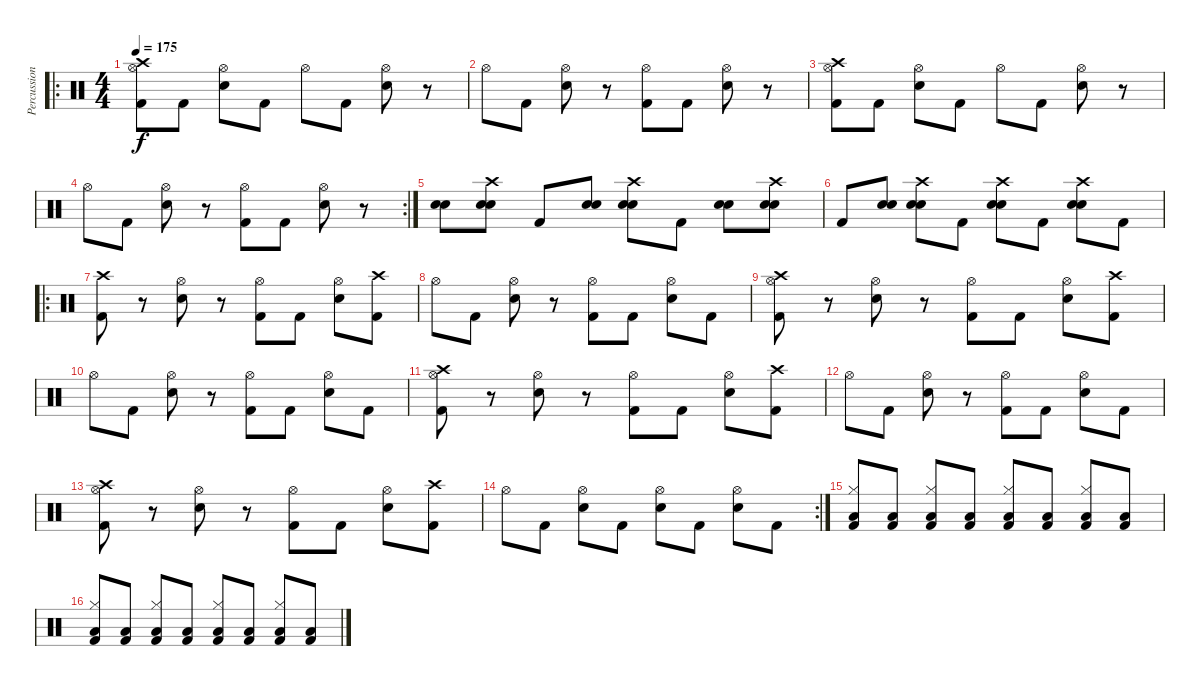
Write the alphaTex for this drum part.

\track ("Percussion" "Percussion") {instrument percussion}
\staff {score}
\articulation defaults
\ro
\ts (4 4)
\tempo 175
\clef neutral
\ks c
("Crash high (hit)" "Hi-Hat (open)" "Kick (hit) 2").8{dy f} "Kick (hit) 2".8 ("Hi-Hat (open)" "Snare (hit) 2").8 "Kick (hit) 2".8 "Hi-Hat (open)".8 "Kick (hit) 2".8 ("Hi-Hat (open)" "Snare (hit) 2").8 r.8 |
"Hi-Hat (open)".8 "Kick (hit) 2".8 ("Hi-Hat (open)" "Snare (hit) 2").8 r.8 ("Hi-Hat (open)" "Kick (hit) 2").8 "Kick (hit) 2".8 ("Hi-Hat (open)" "Snare (hit) 2").8 r.8 |
("Crash high (hit)" "Hi-Hat (open)" "Kick (hit) 2").8 "Kick (hit) 2".8 ("Hi-Hat (open)" "Snare (hit) 2").8 "Kick (hit) 2".8 "Hi-Hat (open)".8 "Kick (hit) 2".8 ("Hi-Hat (open)" "Snare (hit) 2").8 r.8 |
\rc 2 "Hi-Hat (open)".8 "Kick (hit) 2".8
("Hi-Hat (open)" "Snare (hit) 2").8 r.8 ("Hi-Hat (open)" "Kick (hit) 2").8 "Kick (hit) 2".8 ("Hi-Hat (open)" "Snare (hit) 2").8 r.8 |
("Hand Clap (hit)" "Snare (hit) 2").8 ("Hand Clap (hit)" "Crash high (hit)" "Snare (hit) 2").8 "Kick (hit) 2".8 ("Hand Clap (hit)" "Snare (hit) 2").8 ("Hand Clap (hit)" "Crash high (hit)" "Snare (hit) 2").8 "Kick (hit) 2".8 ("Hand Clap (hit)" "Snare (hit) 2").8 ("Hand Clap (hit)" "Crash high (hit)" "Snare (hit) 2").8 |
"Kick (hit) 2".8 ("Hand Clap (hit)" "Snare (hit) 2").8 ("Hand Clap (hit)" "Crash high (hit)" "Snare (hit) 2").8 "Kick (hit) 2".8 ("Hand Clap (hit)" "Crash high (hit)" "Snare (hit) 2").8 "Kick (hit) 2".8 ("Hand Clap (hit)" "Crash high (hit)" "Snare (hit) 2").8 "Kick (hit) 2".8 |
\ro
("Crash high (hit)" "Kick (hit) 2").8 r.8 ("Hi-Hat (open)" "Snare (hit) 2").8 r.8 ("Hi-Hat (open)" "Kick (hit) 2").8 "Kick (hit) 2".8 ("Hi-Hat (open)" "Snare (hit) 2").8 ("Crash high (hit)" "Kick (hit) 2").8 |
"Hi-Hat (open)".8 "Kick (hit) 2".8 ("Hi-Hat (open)" "Snare (hit) 2").8 r.8 ("Hi-Hat (open)" "Kick (hit) 2").8 "Kick (hit) 2".8 ("Hi-Hat (open)" "Snare (hit) 2").8 "Kick (hit) 2".8 |
("Crash high (hit)" "Hi-Hat (open)" "Kick (hit) 2").8 r.8 ("Hi-Hat (open)" "Snare (hit) 2").8 r.8 ("Hi-Hat (open)" "Kick (hit) 2").8 "Kick (hit) 2".8 ("Hi-Hat (open)" "Snare (hit) 2").8 ("Crash high (hit)" "Kick (hit) 2").8 |
"Hi-Hat (open)".8 "Kick (hit) 2".8 ("Hi-Hat (open)" "Snare (hit) 2").8 r.8 ("Hi-Hat (open)" "Kick (hit) 2").8 "Kick (hit) 2".8 ("Hi-Hat (open)" "Snare (hit) 2").8 "Kick (hit) 2".8 |
("Crash high (hit)" "Hi-Hat (open)" "Kick (hit) 2").8 r.8 ("Hi-Hat (open)" "Snare (hit) 2").8 r.8 ("Hi-Hat (open)" "Kick (hit) 2").8 "Kick (hit) 2".8 ("Hi-Hat (open)" "Snare (hit) 2").8 ("Crash high (hit)" "Kick (hit) 2").8 |
"Hi-Hat (open)".8 "Kick (hit) 2".8 ("Hi-Hat (open)" "Snare (hit) 2").8 r.8 ("Hi-Hat (open)" "Kick (hit) 2").8 "Kick (hit) 2".8 ("Hi-Hat (open)" "Snare (hit) 2").8 "Kick (hit) 2".8 |
("Crash high (hit)" "Hi-Hat (open)" "Kick (hit) 2").8 r.8 ("Hi-Hat (open)" "Snare (hit) 2").8 r.8 ("Hi-Hat (open)" "Kick (hit) 2").8 "Kick (hit) 2".8 ("Hi-Hat (open)" "Snare (hit) 2").8 ("Crash high (hit)" "Kick (hit) 2").8 |
\rc 2 "Hi-Hat (open)".8 "Kick (hit) 2".8
("Hi-Hat (open)" "Snare (hit) 2").8 "Kick (hit) 2".8 ("Hi-Hat (open)" "Snare (hit) 2").8 "Kick (hit) 2".8 ("Hi-Hat (open)" "Snare (hit) 2").8 "Kick (hit) 2".8 |
("Hi-Hat (closed)" "Low Floor Tom (hit)" "Kick (hit) 2").8 ("Low Floor Tom (hit)" "Kick (hit) 2").8 ("Hi-Hat (closed)" "Low Floor Tom (hit)" "Kick (hit) 2").8 ("Low Floor Tom (hit)" "Kick (hit) 2").8 ("Hi-Hat (closed)" "Low Floor Tom (hit)" "Kick (hit) 2").8 ("Low Floor Tom (hit)" "Kick (hit) 2").8 ("Hi-Hat (closed)" "Low Floor Tom (hit)" "Kick (hit) 2").8 ("Low Floor Tom (hit)" "Kick (hit) 2").8 |
("Hi-Hat (closed)" "Low Floor Tom (hit)" "Kick (hit) 2").8 ("Low Floor Tom (hit)" "Kick (hit) 2").8 ("Hi-Hat (closed)" "Low Floor Tom (hit)" "Kick (hit) 2").8 ("Low Floor Tom (hit)" "Kick (hit) 2").8 ("Hi-Hat (closed)" "Low Floor Tom (hit)" "Kick (hit) 2").8 ("Low Floor Tom (hit)" "Kick (hit) 2").8 ("Hi-Hat (closed)" "Low Floor Tom (hit)" "Kick (hit) 2").8 ("Low Floor Tom (hit)" "Kick (hit) 2").8
